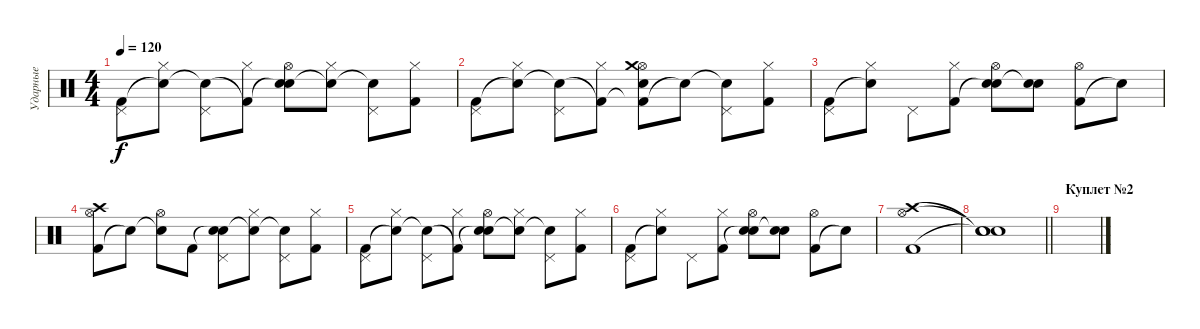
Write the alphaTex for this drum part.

\track ("Ударные" "Ударные") {instrument percussion}
\staff {score}
\articulation defaults
\ts (4 4)
\tempo 120
\clef neutral
\ks c
("Kick (hit) 2" "Pedal Hi-Hat (hit)").8{dy f} ("Snare (hit)"{t} "Hi-Hat (closed)").8 ("Snare (hit)"{t} "Pedal Hi-Hat (hit)").8 ("Kick (hit) 2"{t} "Hi-Hat (closed)").8 ("Snare (hit)"{t} "Hi-Hat (open)" "Electric Snare (hit)").8 ("Snare (hit)"{t} "Hi-Hat (closed)").8 ("Snare (hit)"{t} "Pedal Hi-Hat (hit)").8 ("Kick (hit) 2" "Hi-Hat (closed)").8 |
("Kick (hit) 2" "Pedal Hi-Hat (hit)").8 ("Snare (hit)"{t} "Hi-Hat (closed)").8 ("Snare (hit)"{t} "Pedal Hi-Hat (hit)").8 ("Kick (hit) 2"{t} "Hi-Hat (closed)").8 ("Kick (hit) 2"{t} "Hi-Hat (open)" "Electric Snare (hit)" "Crash medium (hit)").8 "Snare (hit)"{t}.8 ("Snare (hit)"{t} "Pedal Hi-Hat (hit)").8 ("Kick (hit) 2" "Hi-Hat (closed)").8 |
("Kick (hit) 2" "Pedal Hi-Hat (hit)").8 ("Snare (hit)"{t} "Hi-Hat (closed)").8 "Pedal Hi-Hat (hit)".8 ("Kick (hit) 2" "Hi-Hat (closed)").8 ("Snare (hit)"{t} "Hi-Hat (open)" "Electric Snare (hit)").8 ("Snare (hit)"{t} "Electric Snare (hit)").8 ("Kick (hit) 2" "Hi-Hat (open)").8 "Snare (hit)"{t}.8 |
("Kick (hit) 2" "Hi-Hat (open)" "Crash high (hit)").8 "Snare (hit)"{t}.8 ("Snare (hit)"{t} "Hi-Hat (open)").8 "Kick (hit) 2".8 ("Snare (hit)"{t} "Pedal Hi-Hat (hit)" "Electric Snare (hit)").8 ("Snare (hit)"{t} "Hi-Hat (closed)").8 ("Snare (hit)"{t} "Pedal Hi-Hat (hit)").8 ("Kick (hit) 2" "Hi-Hat (closed)").8 |
("Kick (hit) 2" "Pedal Hi-Hat (hit)").8 ("Snare (hit)"{t} "Hi-Hat (closed)").8 ("Snare (hit)"{t} "Pedal Hi-Hat (hit)").8 ("Kick (hit) 2"{t} "Hi-Hat (closed)").8 ("Snare (hit)"{t} "Hi-Hat (open)" "Electric Snare (hit)").8 ("Snare (hit)"{t} "Hi-Hat (closed)").8 ("Snare (hit)"{t} "Pedal Hi-Hat (hit)").8 ("Kick (hit) 2" "Hi-Hat (closed)").8 |
("Kick (hit) 2" "Pedal Hi-Hat (hit)").8 ("Snare (hit)"{t} "Hi-Hat (closed)").8 "Pedal Hi-Hat (hit)".8 ("Kick (hit) 2" "Hi-Hat (closed)").8 ("Snare (hit)"{t} "Hi-Hat (open)" "Electric Snare (hit)").8 ("Snare (hit)"{t} "Electric Snare (hit)").8 ("Kick (hit) 2" "Hi-Hat (open)").8 "Snare (hit)"{t}.8 |
("Kick (hit) 2" "Hi-Hat (open)" "Crash high (hit)").1 |
\barLineRight lightlight
("Snare (hit)"{t} "Snare (hit)"{t} "Snare (hit)"{t}).1 |
\section ("" "Куплет №2")
